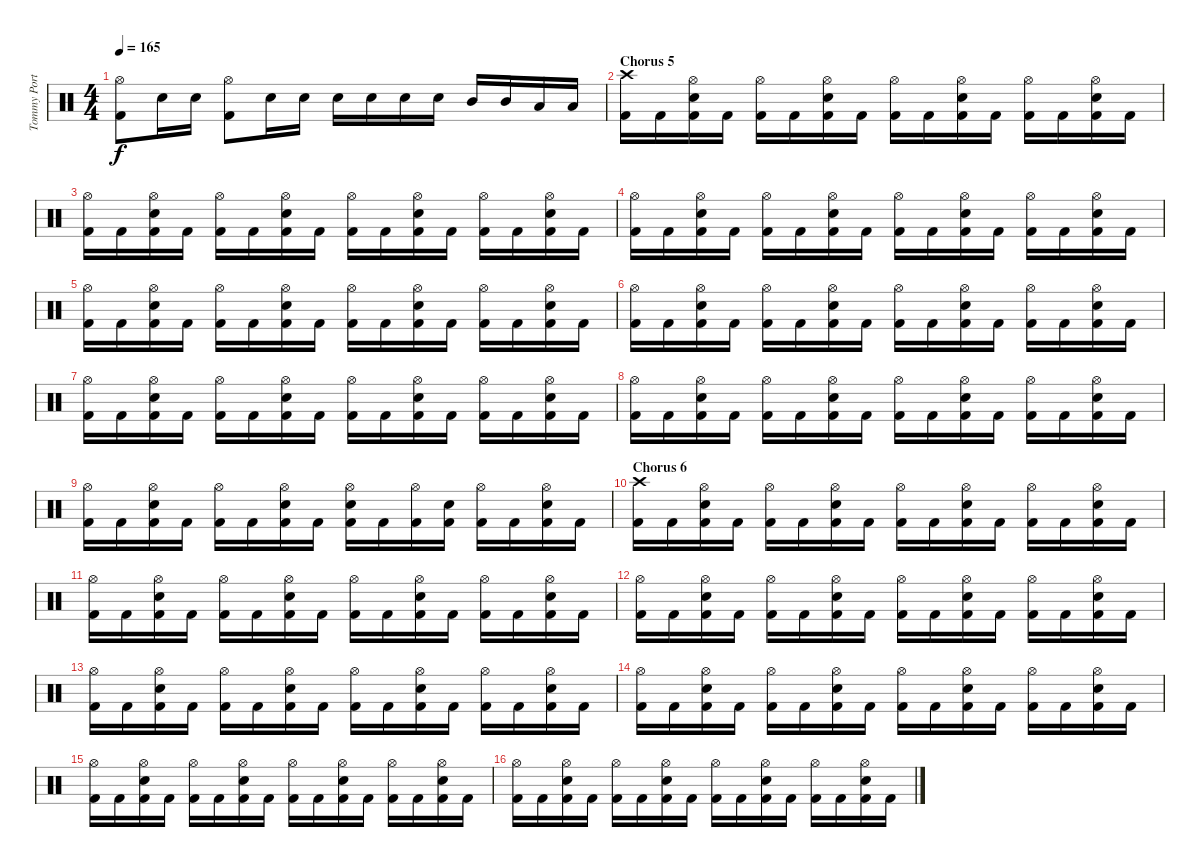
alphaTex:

\track ("Tommy Portimo" "Tommy Port") {instrument percussion}
\staff {score}
\articulation defaults
\ts (4 4)
\tempo 165
\clef neutral
\ks c
("Hi-Hat (open)" "Kick (hit) 2").8{dy f} "Snare (hit) 2".16 "Snare (hit) 2".16 ("Hi-Hat (open)" "Kick (hit) 2").8 "Snare (hit) 2".16 "Snare (hit) 2".16 "Snare (hit) 2".16 "Snare (hit) 2".16 "Snare (hit) 2".16 "Snare (hit) 2".16 "Mid Tom (hit)".16 "Mid Tom (hit)".16 "Low Tom (hit)".16 "Low Tom (hit)".16 |
\section ("" "Chorus 5")
("Crash high (hit)" "Kick (hit) 2").16 "Kick (hit) 2".16 ("Hi-Hat (open)" "Snare (hit) 2" "Kick (hit) 2").16 "Kick (hit) 2".16 ("Hi-Hat (open)" "Kick (hit) 2").16 "Kick (hit) 2".16 ("Hi-Hat (open)" "Snare (hit) 2" "Kick (hit) 2").16 "Kick (hit) 2".16 ("Hi-Hat (open)" "Kick (hit) 2").16 "Kick (hit) 2".16 ("Hi-Hat (open)" "Snare (hit) 2" "Kick (hit) 2").16 "Kick (hit) 2".16 ("Hi-Hat (open)" "Kick (hit) 2").16 "Kick (hit) 2".16 ("Hi-Hat (open)" "Snare (hit) 2" "Kick (hit) 2").16 "Kick (hit) 2".16 |
("Hi-Hat (open)" "Kick (hit) 2").16 "Kick (hit) 2".16 ("Hi-Hat (open)" "Snare (hit) 2" "Kick (hit) 2").16 "Kick (hit) 2".16 ("Hi-Hat (open)" "Kick (hit) 2").16 "Kick (hit) 2".16 ("Hi-Hat (open)" "Snare (hit) 2" "Kick (hit) 2").16 "Kick (hit) 2".16 ("Hi-Hat (open)" "Kick (hit) 2").16 "Kick (hit) 2".16 ("Hi-Hat (open)" "Snare (hit) 2" "Kick (hit) 2").16 "Kick (hit) 2".16 ("Hi-Hat (open)" "Kick (hit) 2").16 "Kick (hit) 2".16 ("Hi-Hat (open)" "Snare (hit) 2" "Kick (hit) 2").16 "Kick (hit) 2".16 |
("Hi-Hat (open)" "Kick (hit) 2").16 "Kick (hit) 2".16 ("Hi-Hat (open)" "Snare (hit) 2" "Kick (hit) 2").16 "Kick (hit) 2".16 ("Hi-Hat (open)" "Kick (hit) 2").16 "Kick (hit) 2".16 ("Hi-Hat (open)" "Snare (hit) 2" "Kick (hit) 2").16 "Kick (hit) 2".16 ("Hi-Hat (open)" "Kick (hit) 2").16 "Kick (hit) 2".16 ("Hi-Hat (open)" "Snare (hit) 2" "Kick (hit) 2").16 "Kick (hit) 2".16 ("Hi-Hat (open)" "Kick (hit) 2").16 "Kick (hit) 2".16 ("Hi-Hat (open)" "Snare (hit) 2" "Kick (hit) 2").16 "Kick (hit) 2".16 |
("Hi-Hat (open)" "Kick (hit) 2").16 "Kick (hit) 2".16 ("Hi-Hat (open)" "Snare (hit) 2" "Kick (hit) 2").16 "Kick (hit) 2".16 ("Hi-Hat (open)" "Kick (hit) 2").16 "Kick (hit) 2".16 ("Hi-Hat (open)" "Snare (hit) 2" "Kick (hit) 2").16 "Kick (hit) 2".16 ("Hi-Hat (open)" "Kick (hit) 2").16 "Kick (hit) 2".16 ("Hi-Hat (open)" "Snare (hit) 2" "Kick (hit) 2").16 "Kick (hit) 2".16 ("Hi-Hat (open)" "Kick (hit) 2").16 "Kick (hit) 2".16 ("Hi-Hat (open)" "Snare (hit) 2" "Kick (hit) 2").16 "Kick (hit) 2".16 |
("Hi-Hat (open)" "Kick (hit) 2").16 "Kick (hit) 2".16 ("Hi-Hat (open)" "Snare (hit) 2" "Kick (hit) 2").16 "Kick (hit) 2".16 ("Hi-Hat (open)" "Kick (hit) 2").16 "Kick (hit) 2".16 ("Hi-Hat (open)" "Snare (hit) 2" "Kick (hit) 2").16 "Kick (hit) 2".16 ("Hi-Hat (open)" "Kick (hit) 2").16 "Kick (hit) 2".16 ("Hi-Hat (open)" "Snare (hit) 2" "Kick (hit) 2").16 "Kick (hit) 2".16 ("Hi-Hat (open)" "Kick (hit) 2").16 "Kick (hit) 2".16 ("Hi-Hat (open)" "Snare (hit) 2" "Kick (hit) 2").16 "Kick (hit) 2".16 |
("Hi-Hat (open)" "Kick (hit) 2").16 "Kick (hit) 2".16 ("Hi-Hat (open)" "Snare (hit) 2" "Kick (hit) 2").16 "Kick (hit) 2".16 ("Hi-Hat (open)" "Kick (hit) 2").16 "Kick (hit) 2".16 ("Hi-Hat (open)" "Snare (hit) 2" "Kick (hit) 2").16 "Kick (hit) 2".16 ("Hi-Hat (open)" "Kick (hit) 2").16 "Kick (hit) 2".16 ("Hi-Hat (open)" "Snare (hit) 2" "Kick (hit) 2").16 "Kick (hit) 2".16 ("Hi-Hat (open)" "Kick (hit) 2").16 "Kick (hit) 2".16 ("Hi-Hat (open)" "Snare (hit) 2" "Kick (hit) 2").16 "Kick (hit) 2".16 |
("Hi-Hat (open)" "Kick (hit) 2").16 "Kick (hit) 2".16 ("Hi-Hat (open)" "Snare (hit) 2" "Kick (hit) 2").16 "Kick (hit) 2".16 ("Hi-Hat (open)" "Kick (hit) 2").16 "Kick (hit) 2".16 ("Hi-Hat (open)" "Snare (hit) 2" "Kick (hit) 2").16 "Kick (hit) 2".16 ("Hi-Hat (open)" "Kick (hit) 2").16 "Kick (hit) 2".16 ("Hi-Hat (open)" "Snare (hit) 2" "Kick (hit) 2").16 "Kick (hit) 2".16 ("Hi-Hat (open)" "Kick (hit) 2").16 "Kick (hit) 2".16 ("Hi-Hat (open)" "Snare (hit) 2" "Kick (hit) 2").16 "Kick (hit) 2".16 |
("Hi-Hat (open)" "Kick (hit) 2").16 "Kick (hit) 2".16 ("Hi-Hat (open)" "Snare (hit) 2" "Kick (hit) 2").16 "Kick (hit) 2".16 ("Hi-Hat (open)" "Kick (hit) 2").16 "Kick (hit) 2".16 ("Hi-Hat (open)" "Snare (hit) 2" "Kick (hit) 2").16 "Kick (hit) 2".16 ("Hi-Hat (open)" "Snare (hit) 2" "Kick (hit) 2").16 "Kick (hit) 2".16 ("Hi-Hat (open)" "Kick (hit) 2").16 ("Snare (hit) 2" "Kick (hit) 2").16 ("Hi-Hat (open)" "Kick (hit) 2").16 "Kick (hit) 2".16 ("Hi-Hat (open)" "Snare (hit) 2" "Kick (hit) 2").16 "Kick (hit) 2".16 |
\section ("" "Chorus 6")
("Crash high (hit)" "Kick (hit) 2").16 "Kick (hit) 2".16 ("Hi-Hat (open)" "Snare (hit) 2" "Kick (hit) 2").16 "Kick (hit) 2".16 ("Hi-Hat (open)" "Kick (hit) 2").16 "Kick (hit) 2".16 ("Hi-Hat (open)" "Snare (hit) 2" "Kick (hit) 2").16 "Kick (hit) 2".16 ("Hi-Hat (open)" "Kick (hit) 2").16 "Kick (hit) 2".16 ("Hi-Hat (open)" "Snare (hit) 2" "Kick (hit) 2").16 "Kick (hit) 2".16 ("Hi-Hat (open)" "Kick (hit) 2").16 "Kick (hit) 2".16 ("Hi-Hat (open)" "Snare (hit) 2" "Kick (hit) 2").16 "Kick (hit) 2".16 |
("Hi-Hat (open)" "Kick (hit) 2").16 "Kick (hit) 2".16 ("Hi-Hat (open)" "Snare (hit) 2" "Kick (hit) 2").16 "Kick (hit) 2".16 ("Hi-Hat (open)" "Kick (hit) 2").16 "Kick (hit) 2".16 ("Hi-Hat (open)" "Snare (hit) 2" "Kick (hit) 2").16 "Kick (hit) 2".16 ("Hi-Hat (open)" "Kick (hit) 2").16 "Kick (hit) 2".16 ("Hi-Hat (open)" "Snare (hit) 2" "Kick (hit) 2").16 "Kick (hit) 2".16 ("Hi-Hat (open)" "Kick (hit) 2").16 "Kick (hit) 2".16 ("Hi-Hat (open)" "Snare (hit) 2" "Kick (hit) 2").16 "Kick (hit) 2".16 |
("Hi-Hat (open)" "Kick (hit) 2").16 "Kick (hit) 2".16 ("Hi-Hat (open)" "Snare (hit) 2" "Kick (hit) 2").16 "Kick (hit) 2".16 ("Hi-Hat (open)" "Kick (hit) 2").16 "Kick (hit) 2".16 ("Hi-Hat (open)" "Snare (hit) 2" "Kick (hit) 2").16 "Kick (hit) 2".16 ("Hi-Hat (open)" "Kick (hit) 2").16 "Kick (hit) 2".16 ("Hi-Hat (open)" "Snare (hit) 2" "Kick (hit) 2").16 "Kick (hit) 2".16 ("Hi-Hat (open)" "Kick (hit) 2").16 "Kick (hit) 2".16 ("Hi-Hat (open)" "Snare (hit) 2" "Kick (hit) 2").16 "Kick (hit) 2".16 |
("Hi-Hat (open)" "Kick (hit) 2").16 "Kick (hit) 2".16 ("Hi-Hat (open)" "Snare (hit) 2" "Kick (hit) 2").16 "Kick (hit) 2".16 ("Hi-Hat (open)" "Kick (hit) 2").16 "Kick (hit) 2".16 ("Hi-Hat (open)" "Snare (hit) 2" "Kick (hit) 2").16 "Kick (hit) 2".16 ("Hi-Hat (open)" "Kick (hit) 2").16 "Kick (hit) 2".16 ("Hi-Hat (open)" "Snare (hit) 2" "Kick (hit) 2").16 "Kick (hit) 2".16 ("Hi-Hat (open)" "Kick (hit) 2").16 "Kick (hit) 2".16 ("Hi-Hat (open)" "Snare (hit) 2" "Kick (hit) 2").16 "Kick (hit) 2".16 |
("Hi-Hat (open)" "Kick (hit) 2").16 "Kick (hit) 2".16 ("Hi-Hat (open)" "Snare (hit) 2" "Kick (hit) 2").16 "Kick (hit) 2".16 ("Hi-Hat (open)" "Kick (hit) 2").16 "Kick (hit) 2".16 ("Hi-Hat (open)" "Snare (hit) 2" "Kick (hit) 2").16 "Kick (hit) 2".16 ("Hi-Hat (open)" "Kick (hit) 2").16 "Kick (hit) 2".16 ("Hi-Hat (open)" "Snare (hit) 2" "Kick (hit) 2").16 "Kick (hit) 2".16 ("Hi-Hat (open)" "Kick (hit) 2").16 "Kick (hit) 2".16 ("Hi-Hat (open)" "Snare (hit) 2" "Kick (hit) 2").16 "Kick (hit) 2".16 |
("Hi-Hat (open)" "Kick (hit) 2").16 "Kick (hit) 2".16 ("Hi-Hat (open)" "Snare (hit) 2" "Kick (hit) 2").16 "Kick (hit) 2".16 ("Hi-Hat (open)" "Kick (hit) 2").16 "Kick (hit) 2".16 ("Hi-Hat (open)" "Snare (hit) 2" "Kick (hit) 2").16 "Kick (hit) 2".16 ("Hi-Hat (open)" "Kick (hit) 2").16 "Kick (hit) 2".16 ("Hi-Hat (open)" "Snare (hit) 2" "Kick (hit) 2").16 "Kick (hit) 2".16 ("Hi-Hat (open)" "Kick (hit) 2").16 "Kick (hit) 2".16 ("Hi-Hat (open)" "Snare (hit) 2" "Kick (hit) 2").16 "Kick (hit) 2".16 |
("Hi-Hat (open)" "Kick (hit) 2").16 "Kick (hit) 2".16 ("Hi-Hat (open)" "Snare (hit) 2" "Kick (hit) 2").16 "Kick (hit) 2".16 ("Hi-Hat (open)" "Kick (hit) 2").16 "Kick (hit) 2".16 ("Hi-Hat (open)" "Snare (hit) 2" "Kick (hit) 2").16 "Kick (hit) 2".16 ("Hi-Hat (open)" "Kick (hit) 2").16 "Kick (hit) 2".16 ("Hi-Hat (open)" "Snare (hit) 2" "Kick (hit) 2").16 "Kick (hit) 2".16 ("Hi-Hat (open)" "Kick (hit) 2").16 "Kick (hit) 2".16 ("Hi-Hat (open)" "Snare (hit) 2" "Kick (hit) 2").16 "Kick (hit) 2".16
